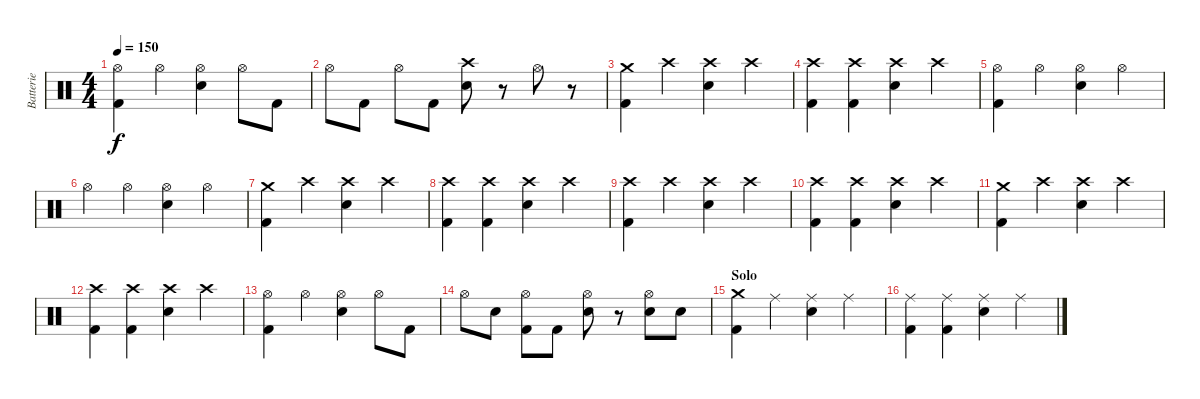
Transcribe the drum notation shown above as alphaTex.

\track ("Batterie" "Batterie") {instrument percussion}
\staff {score}
\articulation defaults
\ts (4 4)
\tempo 150
\clef neutral
\ks c
("Hi-Hat (open)" "Kick (hit) 2").4{dy f} "Hi-Hat (open)".4 ("Hi-Hat (open)" "Electric Snare (hit)").4 "Hi-Hat (open)".8 "Kick (hit) 2".8 |
"Hi-Hat (open)".8 "Kick (hit) 2".8 "Hi-Hat (open)".8 "Kick (hit) 2".8 ("Crash high (hit)" "Electric Snare (hit)").8 r.8 "Hi-Hat (open)".8 r.8 |
("Crash medium (hit)" "Kick (hit) 2").4 "Crash high (hit)".4 ("Crash high (hit)" "Electric Snare (hit)").4 "Crash high (hit)".4 |
("Crash high (hit)" "Kick (hit) 2").4 ("Crash high (hit)" "Kick (hit) 2").4 ("Crash high (hit)" "Electric Snare (hit)").4 "Crash high (hit)".4 |
("Hi-Hat (open)" "Kick (hit) 2").4 "Hi-Hat (open)".4 ("Hi-Hat (open)" "Electric Snare (hit)").4 "Hi-Hat (open)".4 |
"Hi-Hat (open)".4 "Hi-Hat (open)".4 ("Hi-Hat (open)" "Electric Snare (hit)").4 "Hi-Hat (open)".4 |
("Crash medium (hit)" "Kick (hit) 2").4 "Crash high (hit)".4 ("Crash high (hit)" "Electric Snare (hit)").4 "Crash high (hit)".4 |
("Crash high (hit)" "Kick (hit) 2").4 ("Crash high (hit)" "Kick (hit) 2").4 ("Crash high (hit)" "Electric Snare (hit)").4 "Crash high (hit)".4 |
("Crash high (hit)" "Kick (hit) 2").4 "Crash high (hit)".4 ("Crash high (hit)" "Electric Snare (hit)").4 "Crash high (hit)".4 |
("Crash high (hit)" "Kick (hit) 2").4 ("Crash high (hit)" "Kick (hit) 2").4 ("Crash high (hit)" "Electric Snare (hit)").4 "Crash high (hit)".4 |
("Crash medium (hit)" "Kick (hit) 2").4 "Crash high (hit)".4 ("Crash high (hit)" "Electric Snare (hit)").4 "Crash high (hit)".4 |
("Crash high (hit)" "Kick (hit) 2").4 ("Crash high (hit)" "Kick (hit) 2").4 ("Crash high (hit)" "Electric Snare (hit)").4 "Crash high (hit)".4 |
("Hi-Hat (open)" "Kick (hit) 2").4 "Hi-Hat (open)".4 ("Hi-Hat (open)" "Electric Snare (hit)").4 "Hi-Hat (open)".8 "Kick (hit) 2".8 |
"Hi-Hat (open)".8 "Electric Snare (hit)".8 ("Hi-Hat (open)" "Kick (hit) 2").8 "Kick (hit) 2".8 ("Hi-Hat (open)" "Electric Snare (hit)").8 r.8 ("Hi-Hat (open)" "Electric Snare (hit)").8 "Electric Snare (hit)".8 |
\section ("" "Solo")
("Crash medium (hit)" "Kick (hit) 2").4 "Ride (middle)".4 ("Ride (middle)" "Electric Snare (hit)").4 "Ride (middle)".4 |
("Ride (middle)" "Kick (hit) 2").4 ("Ride (middle)" "Kick (hit) 2").4 ("Ride (middle)" "Electric Snare (hit)").4 "Ride (middle)".4
